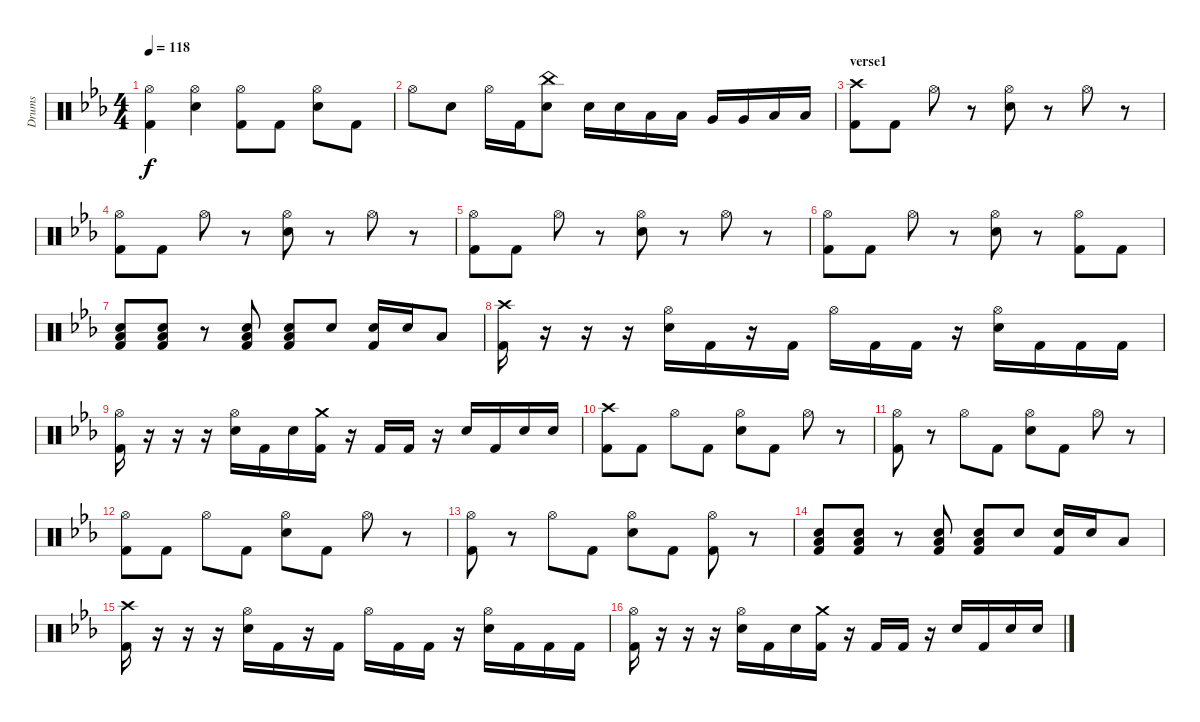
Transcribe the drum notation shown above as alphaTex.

\track ("Drums" "Drums") {instrument percussion}
\staff {score}
\articulation defaults
\ts (4 4)
\tempo 118
\clef neutral
\ks cminor
("Kick (hit) 2" "Hi-Hat (open)").4{dy f} ("Hi-Hat (open)" "Electric Snare (hit)").4 ("Kick (hit) 2" "Hi-Hat (open)").8 "Kick (hit) 2".8 ("Hi-Hat (open)" "Electric Snare (hit)").8 "Kick (hit) 2".8 |
"Hi-Hat (open)".8 "Electric Snare (hit)".8 "Hi-Hat (open)".16 "Kick (hit) 2".16 ("Electric Snare (hit)" "China (hit)").8 "Electric Snare (hit)".16 "Electric Snare (hit)".16 "Low Tom (hit)".16 "Low Tom (hit)".16 "Very Low Tom (hit)".16 "Very Low Tom (hit)".16 "Low Floor Tom (hit)".16 "Low Floor Tom (hit)".16 |
\section ("" "verse1")
("Kick (hit) 2" "Crash high (hit)").8 "Kick (hit) 2".8 "Hi-Hat (open)".8 r.8 ("Hi-Hat (open)" "Electric Snare (hit)").8 r.8 "Hi-Hat (open)".8 r.8 |
("Kick (hit) 2" "Hi-Hat (open)").8 "Kick (hit) 2".8 "Hi-Hat (open)".8 r.8 ("Hi-Hat (open)" "Electric Snare (hit)").8 r.8 "Hi-Hat (open)".8 r.8 |
("Kick (hit) 2" "Hi-Hat (open)").8 "Kick (hit) 2".8 "Hi-Hat (open)".8 r.8 ("Hi-Hat (open)" "Electric Snare (hit)").8 r.8 "Hi-Hat (open)".8 r.8 |
("Kick (hit) 2" "Hi-Hat (open)").8 "Kick (hit) 2".8 "Hi-Hat (open)".8 r.8 ("Hi-Hat (open)" "Electric Snare (hit)").8 r.8 ("Kick (hit) 2" "Hi-Hat (open)").8 "Kick (hit) 2".8 |
("Kick (hit) 2" "Low Floor Tom (hit)" "Electric Snare (hit)").8 ("Kick (hit) 2" "Low Floor Tom (hit)" "Electric Snare (hit)").8 r.8 ("Kick (hit) 2" "Low Floor Tom (hit)" "Electric Snare (hit)").8 ("Kick (hit) 2" "Low Floor Tom (hit)" "Electric Snare (hit)").8 "Electric Snare (hit)".8 ("Kick (hit) 2" "Electric Snare (hit)").16 "Electric Snare (hit)".16 "Low Tom (hit)".8 |
("Kick (hit) 2" "Crash high (hit)").16 r.16 r.16 r.16 ("Hi-Hat (open)" "Electric Snare (hit)").16 "Kick (hit) 2".16 r.16 "Kick (hit) 2".16 "Hi-Hat (open)".16 "Kick (hit) 2".16 "Kick (hit) 2".16 r.16 ("Hi-Hat (open)" "Electric Snare (hit)").16 "Kick (hit) 2".16 "Kick (hit) 2".16 "Kick (hit) 2".16 |
("Kick (hit) 2" "Hi-Hat (open)").16 r.16 r.16 r.16 ("Hi-Hat (open)" "Electric Snare (hit)").16 "Kick (hit) 2".16 "Electric Snare (hit)".16 ("Kick (hit) 2" "Crash medium (hit)").16 r.16 "Kick (hit) 2".16 "Kick (hit) 2".16 r.16 "Electric Snare (hit)".16 "Kick (hit) 2".16 "Electric Snare (hit)".16 "Electric Snare (hit)".16 |
("Kick (hit) 2" "Crash high (hit)").8 "Kick (hit) 2".8 "Hi-Hat (open)".8 "Kick (hit) 2".8 ("Hi-Hat (open)" "Electric Snare (hit)").8 "Kick (hit) 2".8 "Hi-Hat (open)".8 r.8 |
("Kick (hit) 2" "Hi-Hat (open)").8 r.8 "Hi-Hat (open)".8 "Kick (hit) 2".8 ("Hi-Hat (open)" "Electric Snare (hit)").8 "Kick (hit) 2".8 "Hi-Hat (open)".8 r.8 |
("Kick (hit) 2" "Hi-Hat (open)").8 "Kick (hit) 2".8 "Hi-Hat (open)".8 "Kick (hit) 2".8 ("Hi-Hat (open)" "Electric Snare (hit)").8 "Kick (hit) 2".8 "Hi-Hat (open)".8 r.8 |
("Kick (hit) 2" "Hi-Hat (open)").8 r.8 "Hi-Hat (open)".8 "Kick (hit) 2".8 ("Hi-Hat (open)" "Electric Snare (hit)").8 "Kick (hit) 2".8 ("Kick (hit) 2" "Hi-Hat (open)").8 r.8 |
("Kick (hit) 2" "Low Floor Tom (hit)" "Electric Snare (hit)").8 ("Kick (hit) 2" "Low Floor Tom (hit)" "Electric Snare (hit)").8 r.8 ("Kick (hit) 2" "Low Floor Tom (hit)" "Electric Snare (hit)").8 ("Kick (hit) 2" "Low Floor Tom (hit)" "Electric Snare (hit)").8 "Electric Snare (hit)".8 ("Kick (hit) 2" "Electric Snare (hit)").16 "Electric Snare (hit)".16 "Low Tom (hit)".8 |
("Kick (hit) 2" "Crash high (hit)").16 r.16 r.16 r.16 ("Hi-Hat (open)" "Electric Snare (hit)").16 "Kick (hit) 2".16 r.16 "Kick (hit) 2".16 "Hi-Hat (open)".16 "Kick (hit) 2".16 "Kick (hit) 2".16 r.16 ("Hi-Hat (open)" "Electric Snare (hit)").16 "Kick (hit) 2".16 "Kick (hit) 2".16 "Kick (hit) 2".16 |
("Kick (hit) 2" "Hi-Hat (open)").16 r.16 r.16 r.16 ("Hi-Hat (open)" "Electric Snare (hit)").16 "Kick (hit) 2".16 "Electric Snare (hit)".16 ("Kick (hit) 2" "Crash medium (hit)").16 r.16 "Kick (hit) 2".16 "Kick (hit) 2".16 r.16 "Electric Snare (hit)".16 "Kick (hit) 2".16 "Electric Snare (hit)".16 "Electric Snare (hit)".16
